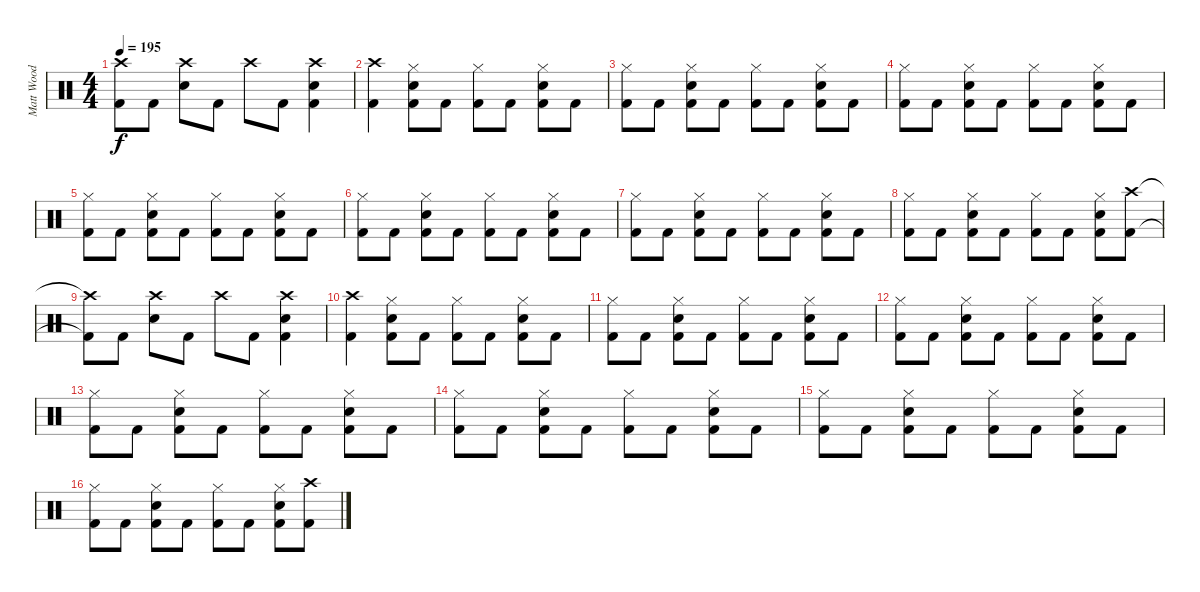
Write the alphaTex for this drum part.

\track ("Matt Wood" "Matt Wood") {instrument percussion}
\staff {score}
\articulation defaults
\ts (4 4)
\tempo 195
\clef neutral
\ks c
("Crash high (hit)"{t} "Kick (hit) 2"{t}).8{dy f} "Kick (hit) 2".8 ("Crash high (hit)" "Snare (hit) 2").8 "Kick (hit) 2".8 "Crash high (hit)".8 "Kick (hit) 2".8 ("Crash high (hit)" "Snare (hit) 2" "Kick (hit) 2").4 |
("Crash high (hit)" "Kick (hit) 2").4 ("Hi-Hat (closed)" "Snare (hit) 2" "Kick (hit) 2").8 "Kick (hit) 2".8 ("Hi-Hat (closed)" "Kick (hit) 2").8 "Kick (hit) 2".8 ("Hi-Hat (closed)" "Snare (hit) 2" "Kick (hit) 2").8 "Kick (hit) 2".8 |
("Hi-Hat (closed)" "Kick (hit) 2").8 "Kick (hit) 2".8 ("Hi-Hat (closed)" "Snare (hit) 2" "Kick (hit) 2").8 "Kick (hit) 2".8 ("Hi-Hat (closed)" "Kick (hit) 2").8 "Kick (hit) 2".8 ("Hi-Hat (closed)" "Snare (hit) 2" "Kick (hit) 2").8 "Kick (hit) 2".8 |
("Hi-Hat (closed)" "Kick (hit) 2").8 "Kick (hit) 2".8 ("Hi-Hat (closed)" "Snare (hit) 2" "Kick (hit) 2").8 "Kick (hit) 2".8 ("Hi-Hat (closed)" "Kick (hit) 2").8 "Kick (hit) 2".8 ("Hi-Hat (closed)" "Snare (hit) 2" "Kick (hit) 2").8 "Kick (hit) 2".8 |
("Hi-Hat (closed)" "Kick (hit) 2").8 "Kick (hit) 2".8 ("Hi-Hat (closed)" "Snare (hit) 2" "Kick (hit) 2").8 "Kick (hit) 2".8 ("Hi-Hat (closed)" "Kick (hit) 2").8 "Kick (hit) 2".8 ("Hi-Hat (closed)" "Snare (hit) 2" "Kick (hit) 2").8 "Kick (hit) 2".8 |
("Hi-Hat (closed)" "Kick (hit) 2").8 "Kick (hit) 2".8 ("Hi-Hat (closed)" "Snare (hit) 2" "Kick (hit) 2").8 "Kick (hit) 2".8 ("Hi-Hat (closed)" "Kick (hit) 2").8 "Kick (hit) 2".8 ("Hi-Hat (closed)" "Snare (hit) 2" "Kick (hit) 2").8 "Kick (hit) 2".8 |
("Hi-Hat (closed)" "Kick (hit) 2").8 "Kick (hit) 2".8 ("Hi-Hat (closed)" "Snare (hit) 2" "Kick (hit) 2").8 "Kick (hit) 2".8 ("Hi-Hat (closed)" "Kick (hit) 2").8 "Kick (hit) 2".8 ("Hi-Hat (closed)" "Snare (hit) 2" "Kick (hit) 2").8 "Kick (hit) 2".8 |
("Hi-Hat (closed)" "Kick (hit) 2").8 "Kick (hit) 2".8 ("Hi-Hat (closed)" "Snare (hit) 2" "Kick (hit) 2").8 "Kick (hit) 2".8 ("Hi-Hat (closed)" "Kick (hit) 2").8 "Kick (hit) 2".8 ("Hi-Hat (closed)" "Snare (hit) 2" "Kick (hit) 2").8 ("Crash high (hit)" "Kick (hit) 2").8 |
("Crash high (hit)"{t} "Kick (hit) 2"{t}).8 "Kick (hit) 2".8 ("Crash high (hit)" "Snare (hit) 2").8 "Kick (hit) 2".8 "Crash high (hit)".8 "Kick (hit) 2".8 ("Crash high (hit)" "Snare (hit) 2" "Kick (hit) 2").4 |
("Crash high (hit)" "Kick (hit) 2").4 ("Hi-Hat (closed)" "Snare (hit) 2" "Kick (hit) 2").8 "Kick (hit) 2".8 ("Hi-Hat (closed)" "Kick (hit) 2").8 "Kick (hit) 2".8 ("Hi-Hat (closed)" "Snare (hit) 2" "Kick (hit) 2").8 "Kick (hit) 2".8 |
("Hi-Hat (closed)" "Kick (hit) 2").8 "Kick (hit) 2".8 ("Hi-Hat (closed)" "Snare (hit) 2" "Kick (hit) 2").8 "Kick (hit) 2".8 ("Hi-Hat (closed)" "Kick (hit) 2").8 "Kick (hit) 2".8 ("Hi-Hat (closed)" "Snare (hit) 2" "Kick (hit) 2").8 "Kick (hit) 2".8 |
("Hi-Hat (closed)" "Kick (hit) 2").8 "Kick (hit) 2".8 ("Hi-Hat (closed)" "Snare (hit) 2" "Kick (hit) 2").8 "Kick (hit) 2".8 ("Hi-Hat (closed)" "Kick (hit) 2").8 "Kick (hit) 2".8 ("Hi-Hat (closed)" "Snare (hit) 2" "Kick (hit) 2").8 "Kick (hit) 2".8 |
("Hi-Hat (closed)" "Kick (hit) 2").8 "Kick (hit) 2".8 ("Hi-Hat (closed)" "Snare (hit) 2" "Kick (hit) 2").8 "Kick (hit) 2".8 ("Hi-Hat (closed)" "Kick (hit) 2").8 "Kick (hit) 2".8 ("Hi-Hat (closed)" "Snare (hit) 2" "Kick (hit) 2").8 "Kick (hit) 2".8 |
("Hi-Hat (closed)" "Kick (hit) 2").8 "Kick (hit) 2".8 ("Hi-Hat (closed)" "Snare (hit) 2" "Kick (hit) 2").8 "Kick (hit) 2".8 ("Hi-Hat (closed)" "Kick (hit) 2").8 "Kick (hit) 2".8 ("Hi-Hat (closed)" "Snare (hit) 2" "Kick (hit) 2").8 "Kick (hit) 2".8 |
("Hi-Hat (closed)" "Kick (hit) 2").8 "Kick (hit) 2".8 ("Hi-Hat (closed)" "Snare (hit) 2" "Kick (hit) 2").8 "Kick (hit) 2".8 ("Hi-Hat (closed)" "Kick (hit) 2").8 "Kick (hit) 2".8 ("Hi-Hat (closed)" "Snare (hit) 2" "Kick (hit) 2").8 "Kick (hit) 2".8 |
("Hi-Hat (closed)" "Kick (hit) 2").8 "Kick (hit) 2".8 ("Hi-Hat (closed)" "Snare (hit) 2" "Kick (hit) 2").8 "Kick (hit) 2".8 ("Hi-Hat (closed)" "Kick (hit) 2").8 "Kick (hit) 2".8 ("Hi-Hat (closed)" "Snare (hit) 2" "Kick (hit) 2").8 ("Crash high (hit)" "Kick (hit) 2").8
